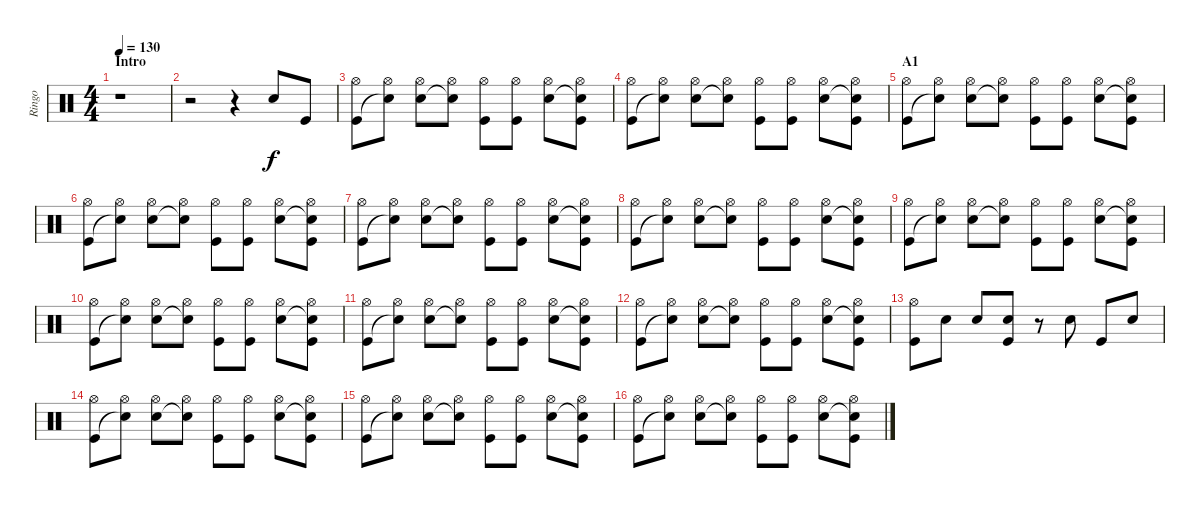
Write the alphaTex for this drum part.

\track ("Ringo" "Ringo") {instrument percussion}
\staff {score}
\articulation defaults
\ts (4 4)
\section ("" "Intro")
\tempo 130
\clef neutral
\ks c
r.1{dy f} |
r.2 r.4 "Snare (hit) 2".8 "Kick (hit)".8 |
("Hi-Hat (open)" "Kick (hit)").8 ("Hi-Hat (open)" "Snare (hit)"{t}).8 ("Hi-Hat (open)" "Snare (hit) 2").8 ("Hi-Hat (open)" "Snare (hit)"{t}).8 ("Hi-Hat (open)" "Kick (hit)").8 ("Hi-Hat (open)" "Kick (hit)").8 ("Hi-Hat (open)" "Snare (hit) 2").8 ("Hi-Hat (open)" "Snare (hit)"{t} "Kick (hit)").8 |
("Hi-Hat (open)" "Kick (hit)").8 ("Hi-Hat (open)" "Snare (hit)"{t}).8 ("Hi-Hat (open)" "Snare (hit) 2").8 ("Hi-Hat (open)" "Snare (hit)"{t}).8 ("Hi-Hat (open)" "Kick (hit)").8 ("Hi-Hat (open)" "Kick (hit)").8 ("Hi-Hat (open)" "Snare (hit) 2").8 ("Hi-Hat (open)" "Snare (hit)"{t} "Kick (hit)").8 |
\section ("" "A1")
("Hi-Hat (open)" "Kick (hit)").8 ("Hi-Hat (open)" "Snare (hit)"{t}).8 ("Hi-Hat (open)" "Snare (hit) 2").8 ("Hi-Hat (open)" "Snare (hit)"{t}).8 ("Hi-Hat (open)" "Kick (hit)").8 ("Hi-Hat (open)" "Kick (hit)").8 ("Hi-Hat (open)" "Snare (hit) 2").8 ("Hi-Hat (open)" "Snare (hit)"{t} "Kick (hit)").8 |
("Hi-Hat (open)" "Kick (hit)").8 ("Hi-Hat (open)" "Snare (hit)"{t}).8 ("Hi-Hat (open)" "Snare (hit) 2").8 ("Hi-Hat (open)" "Snare (hit)"{t}).8 ("Hi-Hat (open)" "Kick (hit)").8 ("Hi-Hat (open)" "Kick (hit)").8 ("Hi-Hat (open)" "Snare (hit) 2").8 ("Hi-Hat (open)" "Snare (hit)"{t} "Kick (hit)").8 |
("Hi-Hat (open)" "Kick (hit)").8 ("Hi-Hat (open)" "Snare (hit)"{t}).8 ("Hi-Hat (open)" "Snare (hit) 2").8 ("Hi-Hat (open)" "Snare (hit)"{t}).8 ("Hi-Hat (open)" "Kick (hit)").8 ("Hi-Hat (open)" "Kick (hit)").8 ("Hi-Hat (open)" "Snare (hit) 2").8 ("Hi-Hat (open)" "Snare (hit)"{t} "Kick (hit)").8 |
("Hi-Hat (open)" "Kick (hit)").8 ("Hi-Hat (open)" "Snare (hit)"{t}).8 ("Hi-Hat (open)" "Snare (hit) 2").8 ("Hi-Hat (open)" "Snare (hit)"{t}).8 ("Hi-Hat (open)" "Kick (hit)").8 ("Hi-Hat (open)" "Kick (hit)").8 ("Hi-Hat (open)" "Snare (hit) 2").8 ("Hi-Hat (open)" "Snare (hit)"{t} "Kick (hit)").8 |
("Hi-Hat (open)" "Kick (hit)").8 ("Hi-Hat (open)" "Snare (hit)"{t}).8 ("Hi-Hat (open)" "Snare (hit) 2").8 ("Hi-Hat (open)" "Snare (hit)"{t}).8 ("Hi-Hat (open)" "Kick (hit)").8 ("Hi-Hat (open)" "Kick (hit)").8 ("Hi-Hat (open)" "Snare (hit) 2").8 ("Hi-Hat (open)" "Snare (hit)"{t} "Kick (hit)").8 |
("Hi-Hat (open)" "Kick (hit)").8 ("Hi-Hat (open)" "Snare (hit)"{t}).8 ("Hi-Hat (open)" "Snare (hit) 2").8 ("Hi-Hat (open)" "Snare (hit)"{t}).8 ("Hi-Hat (open)" "Kick (hit)").8 ("Hi-Hat (open)" "Kick (hit)").8 ("Hi-Hat (open)" "Snare (hit) 2").8 ("Hi-Hat (open)" "Snare (hit)"{t} "Kick (hit)").8 |
("Hi-Hat (open)" "Kick (hit)").8 ("Hi-Hat (open)" "Snare (hit)"{t}).8 ("Hi-Hat (open)" "Snare (hit) 2").8 ("Hi-Hat (open)" "Snare (hit)"{t}).8 ("Hi-Hat (open)" "Kick (hit)").8 ("Hi-Hat (open)" "Kick (hit)").8 ("Hi-Hat (open)" "Snare (hit) 2").8 ("Hi-Hat (open)" "Snare (hit)"{t} "Kick (hit)").8 |
("Hi-Hat (open)" "Kick (hit)").8 ("Hi-Hat (open)" "Snare (hit)"{t}).8 ("Hi-Hat (open)" "Snare (hit) 2").8 ("Hi-Hat (open)" "Snare (hit)"{t}).8 ("Hi-Hat (open)" "Kick (hit)").8 ("Hi-Hat (open)" "Kick (hit)").8 ("Hi-Hat (open)" "Snare (hit) 2").8 ("Hi-Hat (open)" "Snare (hit)"{t} "Kick (hit)").8 |
("Hi-Hat (open)" "Kick (hit)").8 "Snare (hit) 2".8 "Snare (hit) 2".8 ("Snare (hit) 2" "Kick (hit)").8 r.8 "Snare (hit) 2".8 "Kick (hit)".8 "Snare (hit) 2".8 |
("Hi-Hat (open)" "Kick (hit)").8 ("Hi-Hat (open)" "Snare (hit)"{t}).8 ("Hi-Hat (open)" "Snare (hit) 2").8 ("Hi-Hat (open)" "Snare (hit)"{t}).8 ("Hi-Hat (open)" "Kick (hit)").8 ("Hi-Hat (open)" "Kick (hit)").8 ("Hi-Hat (open)" "Snare (hit) 2").8 ("Hi-Hat (open)" "Snare (hit)"{t} "Kick (hit)").8 |
("Hi-Hat (open)" "Kick (hit)").8 ("Hi-Hat (open)" "Snare (hit)"{t}).8 ("Hi-Hat (open)" "Snare (hit) 2").8 ("Hi-Hat (open)" "Snare (hit)"{t}).8 ("Hi-Hat (open)" "Kick (hit)").8 ("Hi-Hat (open)" "Kick (hit)").8 ("Hi-Hat (open)" "Snare (hit) 2").8 ("Hi-Hat (open)" "Snare (hit)"{t} "Kick (hit)").8 |
("Hi-Hat (open)" "Kick (hit)").8 ("Hi-Hat (open)" "Snare (hit)"{t}).8 ("Hi-Hat (open)" "Snare (hit) 2").8 ("Hi-Hat (open)" "Snare (hit)"{t}).8 ("Hi-Hat (open)" "Kick (hit)").8 ("Hi-Hat (open)" "Kick (hit)").8 ("Hi-Hat (open)" "Snare (hit) 2").8 ("Hi-Hat (open)" "Snare (hit)"{t} "Kick (hit)").8
